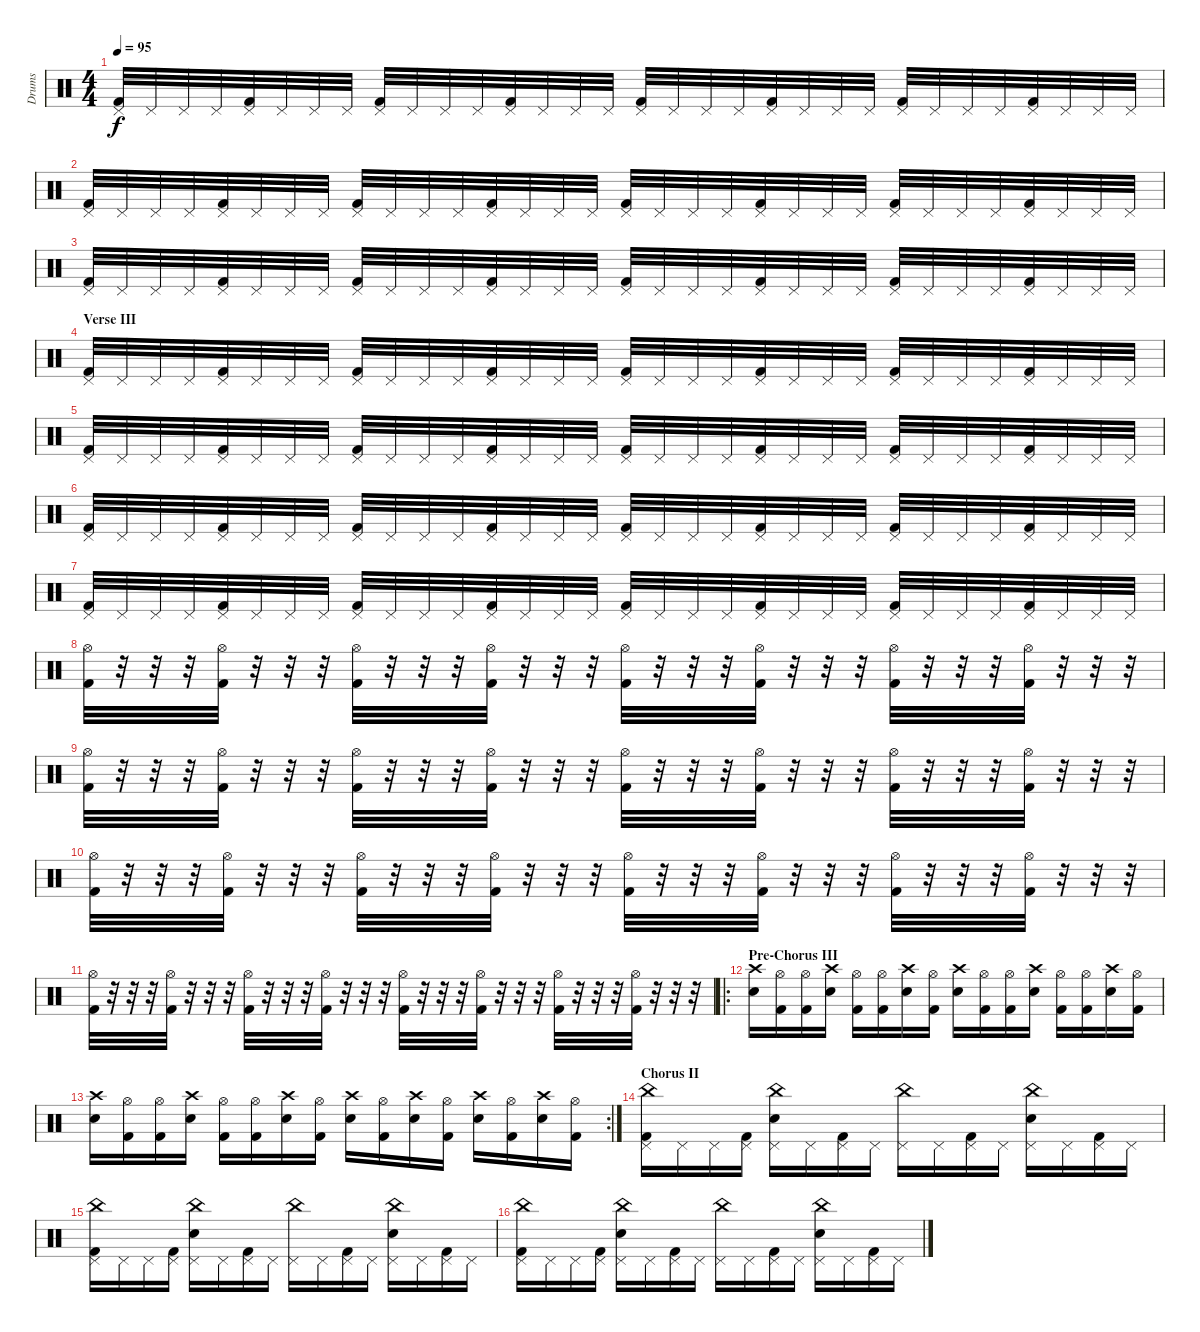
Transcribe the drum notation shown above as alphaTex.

\track ("Drums" "Drums") {instrument percussion}
\staff {score}
\articulation defaults
\ts (4 4)
\tempo 95
\clef neutral
\ks c
("Pedal Hi-Hat (hit)" "Kick (hit) 2").32{dy f} "Pedal Hi-Hat (hit)".32 "Pedal Hi-Hat (hit)".32 "Pedal Hi-Hat (hit)".32 ("Pedal Hi-Hat (hit)" "Kick (hit) 2").32 "Pedal Hi-Hat (hit)".32 "Pedal Hi-Hat (hit)".32 "Pedal Hi-Hat (hit)".32 ("Pedal Hi-Hat (hit)" "Kick (hit) 2").32 "Pedal Hi-Hat (hit)".32 "Pedal Hi-Hat (hit)".32 "Pedal Hi-Hat (hit)".32 ("Pedal Hi-Hat (hit)" "Kick (hit) 2").32 "Pedal Hi-Hat (hit)".32 "Pedal Hi-Hat (hit)".32 "Pedal Hi-Hat (hit)".32 ("Pedal Hi-Hat (hit)" "Kick (hit) 2").32 "Pedal Hi-Hat (hit)".32 "Pedal Hi-Hat (hit)".32 "Pedal Hi-Hat (hit)".32 ("Pedal Hi-Hat (hit)" "Kick (hit) 2").32 "Pedal Hi-Hat (hit)".32 "Pedal Hi-Hat (hit)".32 "Pedal Hi-Hat (hit)".32 ("Pedal Hi-Hat (hit)" "Kick (hit) 2").32 "Pedal Hi-Hat (hit)".32 "Pedal Hi-Hat (hit)".32 "Pedal Hi-Hat (hit)".32 ("Pedal Hi-Hat (hit)" "Kick (hit) 2").32 "Pedal Hi-Hat (hit)".32 "Pedal Hi-Hat (hit)".32 "Pedal Hi-Hat (hit)".32 |
("Pedal Hi-Hat (hit)" "Kick (hit) 2").32 "Pedal Hi-Hat (hit)".32 "Pedal Hi-Hat (hit)".32 "Pedal Hi-Hat (hit)".32 ("Pedal Hi-Hat (hit)" "Kick (hit) 2").32 "Pedal Hi-Hat (hit)".32 "Pedal Hi-Hat (hit)".32 "Pedal Hi-Hat (hit)".32 ("Pedal Hi-Hat (hit)" "Kick (hit) 2").32 "Pedal Hi-Hat (hit)".32 "Pedal Hi-Hat (hit)".32 "Pedal Hi-Hat (hit)".32 ("Pedal Hi-Hat (hit)" "Kick (hit) 2").32 "Pedal Hi-Hat (hit)".32 "Pedal Hi-Hat (hit)".32 "Pedal Hi-Hat (hit)".32 ("Pedal Hi-Hat (hit)" "Kick (hit) 2").32 "Pedal Hi-Hat (hit)".32 "Pedal Hi-Hat (hit)".32 "Pedal Hi-Hat (hit)".32 ("Pedal Hi-Hat (hit)" "Kick (hit) 2").32 "Pedal Hi-Hat (hit)".32 "Pedal Hi-Hat (hit)".32 "Pedal Hi-Hat (hit)".32 ("Pedal Hi-Hat (hit)" "Kick (hit) 2").32 "Pedal Hi-Hat (hit)".32 "Pedal Hi-Hat (hit)".32 "Pedal Hi-Hat (hit)".32 ("Pedal Hi-Hat (hit)" "Kick (hit) 2").32 "Pedal Hi-Hat (hit)".32 "Pedal Hi-Hat (hit)".32 "Pedal Hi-Hat (hit)".32 |
("Pedal Hi-Hat (hit)" "Kick (hit) 2").32 "Pedal Hi-Hat (hit)".32 "Pedal Hi-Hat (hit)".32 "Pedal Hi-Hat (hit)".32 ("Pedal Hi-Hat (hit)" "Kick (hit) 2").32 "Pedal Hi-Hat (hit)".32 "Pedal Hi-Hat (hit)".32 "Pedal Hi-Hat (hit)".32 ("Pedal Hi-Hat (hit)" "Kick (hit) 2").32 "Pedal Hi-Hat (hit)".32 "Pedal Hi-Hat (hit)".32 "Pedal Hi-Hat (hit)".32 ("Pedal Hi-Hat (hit)" "Kick (hit) 2").32 "Pedal Hi-Hat (hit)".32 "Pedal Hi-Hat (hit)".32 "Pedal Hi-Hat (hit)".32 ("Pedal Hi-Hat (hit)" "Kick (hit) 2").32 "Pedal Hi-Hat (hit)".32 "Pedal Hi-Hat (hit)".32 "Pedal Hi-Hat (hit)".32 ("Pedal Hi-Hat (hit)" "Kick (hit) 2").32 "Pedal Hi-Hat (hit)".32 "Pedal Hi-Hat (hit)".32 "Pedal Hi-Hat (hit)".32 ("Pedal Hi-Hat (hit)" "Kick (hit) 2").32 "Pedal Hi-Hat (hit)".32 "Pedal Hi-Hat (hit)".32 "Pedal Hi-Hat (hit)".32 ("Pedal Hi-Hat (hit)" "Kick (hit) 2").32 "Pedal Hi-Hat (hit)".32 "Pedal Hi-Hat (hit)".32 "Pedal Hi-Hat (hit)".32 |
\section ("" "Verse III")
("Pedal Hi-Hat (hit)" "Kick (hit) 2").32 "Pedal Hi-Hat (hit)".32 "Pedal Hi-Hat (hit)".32 "Pedal Hi-Hat (hit)".32 ("Pedal Hi-Hat (hit)" "Kick (hit) 2").32 "Pedal Hi-Hat (hit)".32 "Pedal Hi-Hat (hit)".32 "Pedal Hi-Hat (hit)".32 ("Pedal Hi-Hat (hit)" "Kick (hit) 2").32 "Pedal Hi-Hat (hit)".32 "Pedal Hi-Hat (hit)".32 "Pedal Hi-Hat (hit)".32 ("Pedal Hi-Hat (hit)" "Kick (hit) 2").32 "Pedal Hi-Hat (hit)".32 "Pedal Hi-Hat (hit)".32 "Pedal Hi-Hat (hit)".32 ("Pedal Hi-Hat (hit)" "Kick (hit) 2").32 "Pedal Hi-Hat (hit)".32 "Pedal Hi-Hat (hit)".32 "Pedal Hi-Hat (hit)".32 ("Pedal Hi-Hat (hit)" "Kick (hit) 2").32 "Pedal Hi-Hat (hit)".32 "Pedal Hi-Hat (hit)".32 "Pedal Hi-Hat (hit)".32 ("Pedal Hi-Hat (hit)" "Kick (hit) 2").32 "Pedal Hi-Hat (hit)".32 "Pedal Hi-Hat (hit)".32 "Pedal Hi-Hat (hit)".32 ("Pedal Hi-Hat (hit)" "Kick (hit) 2").32 "Pedal Hi-Hat (hit)".32 "Pedal Hi-Hat (hit)".32 "Pedal Hi-Hat (hit)".32 |
("Pedal Hi-Hat (hit)" "Kick (hit) 2").32 "Pedal Hi-Hat (hit)".32 "Pedal Hi-Hat (hit)".32 "Pedal Hi-Hat (hit)".32 ("Pedal Hi-Hat (hit)" "Kick (hit) 2").32 "Pedal Hi-Hat (hit)".32 "Pedal Hi-Hat (hit)".32 "Pedal Hi-Hat (hit)".32 ("Pedal Hi-Hat (hit)" "Kick (hit) 2").32 "Pedal Hi-Hat (hit)".32 "Pedal Hi-Hat (hit)".32 "Pedal Hi-Hat (hit)".32 ("Pedal Hi-Hat (hit)" "Kick (hit) 2").32 "Pedal Hi-Hat (hit)".32 "Pedal Hi-Hat (hit)".32 "Pedal Hi-Hat (hit)".32 ("Pedal Hi-Hat (hit)" "Kick (hit) 2").32 "Pedal Hi-Hat (hit)".32 "Pedal Hi-Hat (hit)".32 "Pedal Hi-Hat (hit)".32 ("Pedal Hi-Hat (hit)" "Kick (hit) 2").32 "Pedal Hi-Hat (hit)".32 "Pedal Hi-Hat (hit)".32 "Pedal Hi-Hat (hit)".32 ("Pedal Hi-Hat (hit)" "Kick (hit) 2").32 "Pedal Hi-Hat (hit)".32 "Pedal Hi-Hat (hit)".32 "Pedal Hi-Hat (hit)".32 ("Pedal Hi-Hat (hit)" "Kick (hit) 2").32 "Pedal Hi-Hat (hit)".32 "Pedal Hi-Hat (hit)".32 "Pedal Hi-Hat (hit)".32 |
("Pedal Hi-Hat (hit)" "Kick (hit) 2").32 "Pedal Hi-Hat (hit)".32 "Pedal Hi-Hat (hit)".32 "Pedal Hi-Hat (hit)".32 ("Pedal Hi-Hat (hit)" "Kick (hit) 2").32 "Pedal Hi-Hat (hit)".32 "Pedal Hi-Hat (hit)".32 "Pedal Hi-Hat (hit)".32 ("Pedal Hi-Hat (hit)" "Kick (hit) 2").32 "Pedal Hi-Hat (hit)".32 "Pedal Hi-Hat (hit)".32 "Pedal Hi-Hat (hit)".32 ("Pedal Hi-Hat (hit)" "Kick (hit) 2").32 "Pedal Hi-Hat (hit)".32 "Pedal Hi-Hat (hit)".32 "Pedal Hi-Hat (hit)".32 ("Pedal Hi-Hat (hit)" "Kick (hit) 2").32 "Pedal Hi-Hat (hit)".32 "Pedal Hi-Hat (hit)".32 "Pedal Hi-Hat (hit)".32 ("Pedal Hi-Hat (hit)" "Kick (hit) 2").32 "Pedal Hi-Hat (hit)".32 "Pedal Hi-Hat (hit)".32 "Pedal Hi-Hat (hit)".32 ("Pedal Hi-Hat (hit)" "Kick (hit) 2").32 "Pedal Hi-Hat (hit)".32 "Pedal Hi-Hat (hit)".32 "Pedal Hi-Hat (hit)".32 ("Pedal Hi-Hat (hit)" "Kick (hit) 2").32 "Pedal Hi-Hat (hit)".32 "Pedal Hi-Hat (hit)".32 "Pedal Hi-Hat (hit)".32 |
("Pedal Hi-Hat (hit)" "Kick (hit) 2").32 "Pedal Hi-Hat (hit)".32 "Pedal Hi-Hat (hit)".32 "Pedal Hi-Hat (hit)".32 ("Pedal Hi-Hat (hit)" "Kick (hit) 2").32 "Pedal Hi-Hat (hit)".32 "Pedal Hi-Hat (hit)".32 "Pedal Hi-Hat (hit)".32 ("Pedal Hi-Hat (hit)" "Kick (hit) 2").32 "Pedal Hi-Hat (hit)".32 "Pedal Hi-Hat (hit)".32 "Pedal Hi-Hat (hit)".32 ("Pedal Hi-Hat (hit)" "Kick (hit) 2").32 "Pedal Hi-Hat (hit)".32 "Pedal Hi-Hat (hit)".32 "Pedal Hi-Hat (hit)".32 ("Pedal Hi-Hat (hit)" "Kick (hit) 2").32 "Pedal Hi-Hat (hit)".32 "Pedal Hi-Hat (hit)".32 "Pedal Hi-Hat (hit)".32 ("Pedal Hi-Hat (hit)" "Kick (hit) 2").32 "Pedal Hi-Hat (hit)".32 "Pedal Hi-Hat (hit)".32 "Pedal Hi-Hat (hit)".32 ("Pedal Hi-Hat (hit)" "Kick (hit) 2").32 "Pedal Hi-Hat (hit)".32 "Pedal Hi-Hat (hit)".32 "Pedal Hi-Hat (hit)".32 ("Pedal Hi-Hat (hit)" "Kick (hit) 2").32 "Pedal Hi-Hat (hit)".32 "Pedal Hi-Hat (hit)".32 "Pedal Hi-Hat (hit)".32 |
("Hi-Hat (open)" "Kick (hit) 2").32 r.32 r.32 r.32 ("Hi-Hat (open)" "Kick (hit) 2").32 r.32 r.32 r.32 ("Hi-Hat (open)" "Kick (hit) 2").32 r.32 r.32 r.32 ("Hi-Hat (open)" "Kick (hit) 2").32 r.32 r.32 r.32 ("Hi-Hat (open)" "Kick (hit) 2").32 r.32 r.32 r.32 ("Hi-Hat (open)" "Kick (hit) 2").32 r.32 r.32 r.32 ("Hi-Hat (open)" "Kick (hit) 2").32 r.32 r.32 r.32 ("Hi-Hat (open)" "Kick (hit) 2").32 r.32 r.32 r.32 |
("Hi-Hat (open)" "Kick (hit) 2").32 r.32 r.32 r.32 ("Hi-Hat (open)" "Kick (hit) 2").32 r.32 r.32 r.32 ("Hi-Hat (open)" "Kick (hit) 2").32 r.32 r.32 r.32 ("Hi-Hat (open)" "Kick (hit) 2").32 r.32 r.32 r.32 ("Hi-Hat (open)" "Kick (hit) 2").32 r.32 r.32 r.32 ("Hi-Hat (open)" "Kick (hit) 2").32 r.32 r.32 r.32 ("Hi-Hat (open)" "Kick (hit) 2").32 r.32 r.32 r.32 ("Hi-Hat (open)" "Kick (hit) 2").32 r.32 r.32 r.32 |
("Hi-Hat (open)" "Kick (hit) 2").32 r.32 r.32 r.32 ("Hi-Hat (open)" "Kick (hit) 2").32 r.32 r.32 r.32 ("Hi-Hat (open)" "Kick (hit) 2").32 r.32 r.32 r.32 ("Hi-Hat (open)" "Kick (hit) 2").32 r.32 r.32 r.32 ("Hi-Hat (open)" "Kick (hit) 2").32 r.32 r.32 r.32 ("Hi-Hat (open)" "Kick (hit) 2").32 r.32 r.32 r.32 ("Hi-Hat (open)" "Kick (hit) 2").32 r.32 r.32 r.32 ("Hi-Hat (open)" "Kick (hit) 2").32 r.32 r.32 r.32 |
("Hi-Hat (open)" "Kick (hit) 2").32 r.32 r.32 r.32 ("Hi-Hat (open)" "Kick (hit) 2").32 r.32 r.32 r.32 ("Hi-Hat (open)" "Kick (hit) 2").32 r.32 r.32 r.32 ("Hi-Hat (open)" "Kick (hit) 2").32 r.32 r.32 r.32 ("Hi-Hat (open)" "Kick (hit) 2").32 r.32 r.32 r.32 ("Hi-Hat (open)" "Kick (hit) 2").32 r.32 r.32 r.32 ("Hi-Hat (open)" "Kick (hit) 2").32 r.32 r.32 r.32 ("Hi-Hat (open)" "Kick (hit) 2").32 r.32 r.32 r.32 |
\ro
\section ("" "Pre-Chorus III")
("Crash high (hit)" "Electric Snare (hit)").16 ("Hi-Hat (open)" "Kick (hit) 2").16 ("Hi-Hat (open)" "Kick (hit) 2").16 ("Crash high (hit)" "Electric Snare (hit)").16 ("Hi-Hat (open)" "Kick (hit) 2").16 ("Hi-Hat (open)" "Kick (hit) 2").16 ("Crash high (hit)" "Electric Snare (hit)").16 ("Hi-Hat (open)" "Kick (hit) 2").16 ("Crash high (hit)" "Electric Snare (hit)").16 ("Hi-Hat (open)" "Kick (hit) 2").16 ("Hi-Hat (open)" "Kick (hit) 2").16 ("Crash high (hit)" "Electric Snare (hit)").16 ("Hi-Hat (open)" "Kick (hit) 2").16 ("Hi-Hat (open)" "Kick (hit) 2").16 ("Crash high (hit)" "Electric Snare (hit)").16 ("Hi-Hat (open)" "Kick (hit) 2").16 |
\rc 2
("Crash high (hit)" "Electric Snare (hit)").16 ("Hi-Hat (open)" "Kick (hit) 2").16 ("Hi-Hat (open)" "Kick (hit) 2").16 ("Crash high (hit)" "Electric Snare (hit)").16 ("Hi-Hat (open)" "Kick (hit) 2").16 ("Hi-Hat (open)" "Kick (hit) 2").16 ("Crash high (hit)" "Electric Snare (hit)").16 ("Hi-Hat (open)" "Kick (hit) 2").16 ("Crash high (hit)" "Electric Snare (hit)").16 ("Hi-Hat (open)" "Kick (hit) 2").16 ("Crash high (hit)" "Electric Snare (hit)").16 ("Hi-Hat (open)" "Kick (hit) 2").16 ("Crash high (hit)" "Electric Snare (hit)").16 ("Hi-Hat (open)" "Kick (hit) 2").16 ("Crash high (hit)" "Electric Snare (hit)").16 ("Hi-Hat (open)" "Kick (hit) 2").16 |
\section ("" "Chorus II")
("Pedal Hi-Hat (hit)" "China (hit)" "Kick (hit) 2").16 "Pedal Hi-Hat (hit)".16 "Pedal Hi-Hat (hit)".16 ("Pedal Hi-Hat (hit)" "Kick (hit) 2").16 ("Pedal Hi-Hat (hit)" "China (hit)" "Electric Snare (hit)").16 "Pedal Hi-Hat (hit)".16 ("Pedal Hi-Hat (hit)" "Kick (hit) 2").16 "Pedal Hi-Hat (hit)".16 ("Pedal Hi-Hat (hit)" "China (hit)").16 "Pedal Hi-Hat (hit)".16 ("Pedal Hi-Hat (hit)" "Kick (hit) 2").16 "Pedal Hi-Hat (hit)".16 ("Pedal Hi-Hat (hit)" "China (hit)" "Electric Snare (hit)").16 "Pedal Hi-Hat (hit)".16 ("Pedal Hi-Hat (hit)" "Kick (hit) 2").16 "Pedal Hi-Hat (hit)".16 |
("Pedal Hi-Hat (hit)" "China (hit)" "Kick (hit) 2").16 "Pedal Hi-Hat (hit)".16 "Pedal Hi-Hat (hit)".16 ("Pedal Hi-Hat (hit)" "Kick (hit) 2").16 ("Pedal Hi-Hat (hit)" "China (hit)" "Electric Snare (hit)").16 "Pedal Hi-Hat (hit)".16 ("Pedal Hi-Hat (hit)" "Kick (hit) 2").16 "Pedal Hi-Hat (hit)".16 ("Pedal Hi-Hat (hit)" "China (hit)").16 "Pedal Hi-Hat (hit)".16 ("Pedal Hi-Hat (hit)" "Kick (hit) 2").16 "Pedal Hi-Hat (hit)".16 ("Pedal Hi-Hat (hit)" "China (hit)" "Electric Snare (hit)").16 "Pedal Hi-Hat (hit)".16 ("Pedal Hi-Hat (hit)" "Kick (hit) 2").16 "Pedal Hi-Hat (hit)".16 |
("Pedal Hi-Hat (hit)" "China (hit)" "Kick (hit) 2").16 "Pedal Hi-Hat (hit)".16 "Pedal Hi-Hat (hit)".16 ("Pedal Hi-Hat (hit)" "Kick (hit) 2").16 ("Pedal Hi-Hat (hit)" "China (hit)" "Electric Snare (hit)").16 "Pedal Hi-Hat (hit)".16 ("Pedal Hi-Hat (hit)" "Kick (hit) 2").16 "Pedal Hi-Hat (hit)".16 ("Pedal Hi-Hat (hit)" "China (hit)").16 "Pedal Hi-Hat (hit)".16 ("Pedal Hi-Hat (hit)" "Kick (hit) 2").16 "Pedal Hi-Hat (hit)".16 ("Pedal Hi-Hat (hit)" "China (hit)" "Electric Snare (hit)").16 "Pedal Hi-Hat (hit)".16 ("Pedal Hi-Hat (hit)" "Kick (hit) 2").16 "Pedal Hi-Hat (hit)".16
